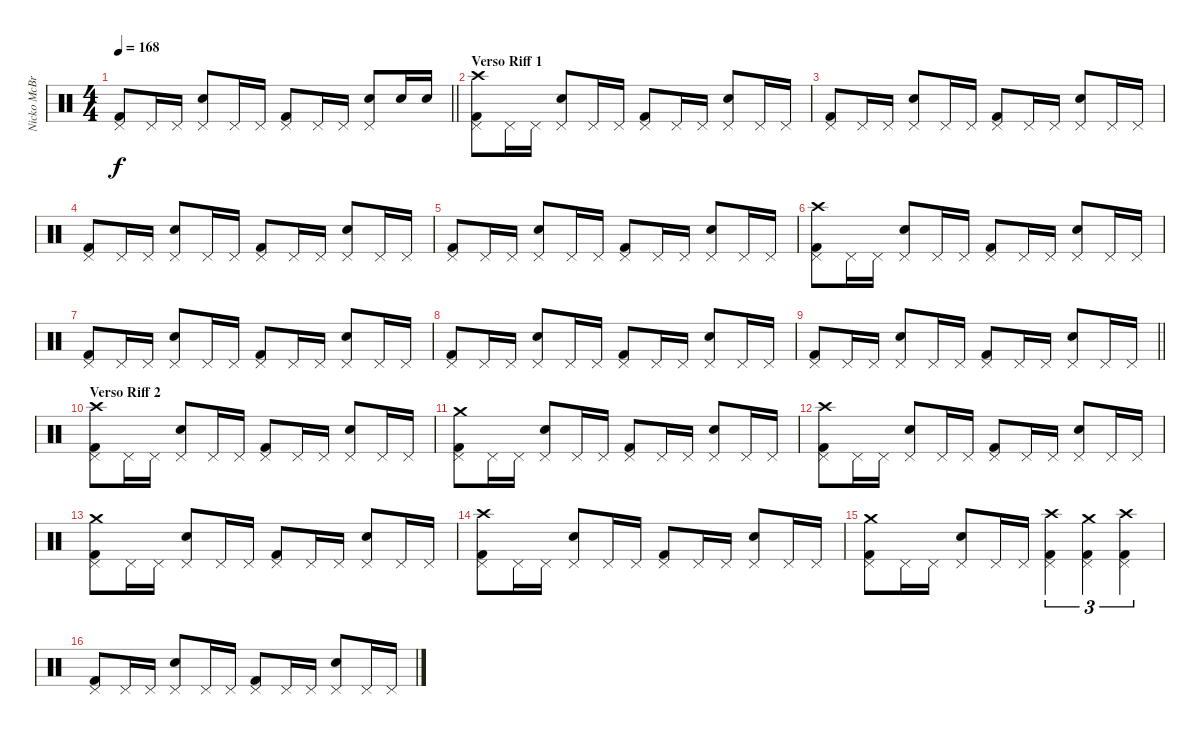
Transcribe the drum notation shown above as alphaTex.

\track ("Nicko McBrain" "Nicko McBr") {instrument percussion}
\staff {score}
\articulation defaults
\ts (4 4)
\tempo 168
\clef neutral
\barLineRight lightlight
\ks c
("Kick (hit) 2" "Pedal Hi-Hat (hit)").8{dy f} "Pedal Hi-Hat (hit)".16 "Pedal Hi-Hat (hit)".16 ("Snare (hit) 2" "Pedal Hi-Hat (hit)").8 "Pedal Hi-Hat (hit)".16 "Pedal Hi-Hat (hit)".16 ("Kick (hit) 2" "Pedal Hi-Hat (hit)").8 "Pedal Hi-Hat (hit)".16 "Pedal Hi-Hat (hit)".16 ("Snare (hit) 2" "Pedal Hi-Hat (hit)").8 "Snare (hit) 2".16 "Snare (hit) 2".16 |
\section ("" "Verso Riff 1")
("Kick (hit) 2" "Pedal Hi-Hat (hit)" "Crash high (hit)").8 "Pedal Hi-Hat (hit)".16 "Pedal Hi-Hat (hit)".16 ("Snare (hit) 2" "Pedal Hi-Hat (hit)").8 "Pedal Hi-Hat (hit)".16 "Pedal Hi-Hat (hit)".16 ("Kick (hit) 2" "Pedal Hi-Hat (hit)").8 "Pedal Hi-Hat (hit)".16 "Pedal Hi-Hat (hit)".16 ("Snare (hit) 2" "Pedal Hi-Hat (hit)").8 "Pedal Hi-Hat (hit)".16 "Pedal Hi-Hat (hit)".16 |
("Kick (hit) 2" "Pedal Hi-Hat (hit)").8 "Pedal Hi-Hat (hit)".16 "Pedal Hi-Hat (hit)".16 ("Snare (hit) 2" "Pedal Hi-Hat (hit)").8 "Pedal Hi-Hat (hit)".16 "Pedal Hi-Hat (hit)".16 ("Kick (hit) 2" "Pedal Hi-Hat (hit)").8 "Pedal Hi-Hat (hit)".16 "Pedal Hi-Hat (hit)".16 ("Snare (hit) 2" "Pedal Hi-Hat (hit)").8 "Pedal Hi-Hat (hit)".16 "Pedal Hi-Hat (hit)".16 |
("Kick (hit) 2" "Pedal Hi-Hat (hit)").8 "Pedal Hi-Hat (hit)".16 "Pedal Hi-Hat (hit)".16 ("Snare (hit) 2" "Pedal Hi-Hat (hit)").8 "Pedal Hi-Hat (hit)".16 "Pedal Hi-Hat (hit)".16 ("Kick (hit) 2" "Pedal Hi-Hat (hit)").8 "Pedal Hi-Hat (hit)".16 "Pedal Hi-Hat (hit)".16 ("Snare (hit) 2" "Pedal Hi-Hat (hit)").8 "Pedal Hi-Hat (hit)".16 "Pedal Hi-Hat (hit)".16 |
("Kick (hit) 2" "Pedal Hi-Hat (hit)").8 "Pedal Hi-Hat (hit)".16 "Pedal Hi-Hat (hit)".16 ("Snare (hit) 2" "Pedal Hi-Hat (hit)").8 "Pedal Hi-Hat (hit)".16 "Pedal Hi-Hat (hit)".16 ("Kick (hit) 2" "Pedal Hi-Hat (hit)").8 "Pedal Hi-Hat (hit)".16 "Pedal Hi-Hat (hit)".16 ("Snare (hit) 2" "Pedal Hi-Hat (hit)").8 "Pedal Hi-Hat (hit)".16 "Pedal Hi-Hat (hit)".16 |
("Kick (hit) 2" "Pedal Hi-Hat (hit)" "Crash high (hit)").8 "Pedal Hi-Hat (hit)".16 "Pedal Hi-Hat (hit)".16 ("Snare (hit) 2" "Pedal Hi-Hat (hit)").8 "Pedal Hi-Hat (hit)".16 "Pedal Hi-Hat (hit)".16 ("Kick (hit) 2" "Pedal Hi-Hat (hit)").8 "Pedal Hi-Hat (hit)".16 "Pedal Hi-Hat (hit)".16 ("Snare (hit) 2" "Pedal Hi-Hat (hit)").8 "Pedal Hi-Hat (hit)".16 "Pedal Hi-Hat (hit)".16 |
("Kick (hit) 2" "Pedal Hi-Hat (hit)").8 "Pedal Hi-Hat (hit)".16 "Pedal Hi-Hat (hit)".16 ("Snare (hit) 2" "Pedal Hi-Hat (hit)").8 "Pedal Hi-Hat (hit)".16 "Pedal Hi-Hat (hit)".16 ("Kick (hit) 2" "Pedal Hi-Hat (hit)").8 "Pedal Hi-Hat (hit)".16 "Pedal Hi-Hat (hit)".16 ("Snare (hit) 2" "Pedal Hi-Hat (hit)").8 "Pedal Hi-Hat (hit)".16 "Pedal Hi-Hat (hit)".16 |
("Kick (hit) 2" "Pedal Hi-Hat (hit)").8 "Pedal Hi-Hat (hit)".16 "Pedal Hi-Hat (hit)".16 ("Snare (hit) 2" "Pedal Hi-Hat (hit)").8 "Pedal Hi-Hat (hit)".16 "Pedal Hi-Hat (hit)".16 ("Kick (hit) 2" "Pedal Hi-Hat (hit)").8 "Pedal Hi-Hat (hit)".16 "Pedal Hi-Hat (hit)".16 ("Snare (hit) 2" "Pedal Hi-Hat (hit)").8 "Pedal Hi-Hat (hit)".16 "Pedal Hi-Hat (hit)".16 |
\barLineRight lightlight
("Kick (hit) 2" "Pedal Hi-Hat (hit)").8 "Pedal Hi-Hat (hit)".16 "Pedal Hi-Hat (hit)".16 ("Snare (hit) 2" "Pedal Hi-Hat (hit)").8 "Pedal Hi-Hat (hit)".16 "Pedal Hi-Hat (hit)".16 ("Kick (hit) 2" "Pedal Hi-Hat (hit)").8 "Pedal Hi-Hat (hit)".16 "Pedal Hi-Hat (hit)".16 ("Snare (hit) 2" "Pedal Hi-Hat (hit)").8 "Pedal Hi-Hat (hit)".16 "Pedal Hi-Hat (hit)".16 |
\section ("" "Verso Riff 2")
("Kick (hit) 2" "Pedal Hi-Hat (hit)" "Crash high (hit)").8 "Pedal Hi-Hat (hit)".16 "Pedal Hi-Hat (hit)".16 ("Snare (hit) 2" "Pedal Hi-Hat (hit)").8 "Pedal Hi-Hat (hit)".16 "Pedal Hi-Hat (hit)".16 ("Kick (hit) 2" "Pedal Hi-Hat (hit)").8 "Pedal Hi-Hat (hit)".16 "Pedal Hi-Hat (hit)".16 ("Snare (hit) 2" "Pedal Hi-Hat (hit)").8 "Pedal Hi-Hat (hit)".16 "Pedal Hi-Hat (hit)".16 |
("Kick (hit) 2" "Pedal Hi-Hat (hit)" "Crash medium (hit)").8 "Pedal Hi-Hat (hit)".16 "Pedal Hi-Hat (hit)".16 ("Snare (hit) 2" "Pedal Hi-Hat (hit)").8 "Pedal Hi-Hat (hit)".16 "Pedal Hi-Hat (hit)".16 ("Kick (hit) 2" "Pedal Hi-Hat (hit)").8 "Pedal Hi-Hat (hit)".16 "Pedal Hi-Hat (hit)".16 ("Snare (hit) 2" "Pedal Hi-Hat (hit)").8 "Pedal Hi-Hat (hit)".16 "Pedal Hi-Hat (hit)".16 |
("Kick (hit) 2" "Pedal Hi-Hat (hit)" "Crash high (hit)").8 "Pedal Hi-Hat (hit)".16 "Pedal Hi-Hat (hit)".16 ("Snare (hit) 2" "Pedal Hi-Hat (hit)").8 "Pedal Hi-Hat (hit)".16 "Pedal Hi-Hat (hit)".16 ("Kick (hit) 2" "Pedal Hi-Hat (hit)").8 "Pedal Hi-Hat (hit)".16 "Pedal Hi-Hat (hit)".16 ("Snare (hit) 2" "Pedal Hi-Hat (hit)").8 "Pedal Hi-Hat (hit)".16 "Pedal Hi-Hat (hit)".16 |
("Kick (hit) 2" "Pedal Hi-Hat (hit)" "Crash medium (hit)").8 "Pedal Hi-Hat (hit)".16 "Pedal Hi-Hat (hit)".16 ("Snare (hit) 2" "Pedal Hi-Hat (hit)").8 "Pedal Hi-Hat (hit)".16 "Pedal Hi-Hat (hit)".16 ("Kick (hit) 2" "Pedal Hi-Hat (hit)").8 "Pedal Hi-Hat (hit)".16 "Pedal Hi-Hat (hit)".16 ("Snare (hit) 2" "Pedal Hi-Hat (hit)").8 "Pedal Hi-Hat (hit)".16 "Pedal Hi-Hat (hit)".16 |
("Kick (hit) 2" "Pedal Hi-Hat (hit)" "Crash high (hit)").8 "Pedal Hi-Hat (hit)".16 "Pedal Hi-Hat (hit)".16 ("Snare (hit) 2" "Pedal Hi-Hat (hit)").8 "Pedal Hi-Hat (hit)".16 "Pedal Hi-Hat (hit)".16 ("Kick (hit) 2" "Pedal Hi-Hat (hit)").8 "Pedal Hi-Hat (hit)".16 "Pedal Hi-Hat (hit)".16 ("Snare (hit) 2" "Pedal Hi-Hat (hit)").8 "Pedal Hi-Hat (hit)".16 "Pedal Hi-Hat (hit)".16 |
("Kick (hit) 2" "Pedal Hi-Hat (hit)" "Crash medium (hit)").8 "Pedal Hi-Hat (hit)".16 "Pedal Hi-Hat (hit)".16 ("Snare (hit) 2" "Pedal Hi-Hat (hit)").8 "Pedal Hi-Hat (hit)".16 "Pedal Hi-Hat (hit)".16 ("Kick (hit) 2" "Pedal Hi-Hat (hit)" "Crash high (hit)").4{tu (3 2)} ("Kick (hit) 2" "Pedal Hi-Hat (hit)" "Crash medium (hit)").4{tu (3 2)} ("Kick (hit) 2" "Pedal Hi-Hat (hit)" "Crash high (hit)").4{tu (3 2)} |
("Kick (hit) 2" "Pedal Hi-Hat (hit)").8 "Pedal Hi-Hat (hit)".16 "Pedal Hi-Hat (hit)".16 ("Snare (hit) 2" "Pedal Hi-Hat (hit)").8 "Pedal Hi-Hat (hit)".16 "Pedal Hi-Hat (hit)".16 ("Kick (hit) 2" "Pedal Hi-Hat (hit)").8 "Pedal Hi-Hat (hit)".16 "Pedal Hi-Hat (hit)".16 ("Snare (hit) 2" "Pedal Hi-Hat (hit)").8 "Pedal Hi-Hat (hit)".16 "Pedal Hi-Hat (hit)".16
